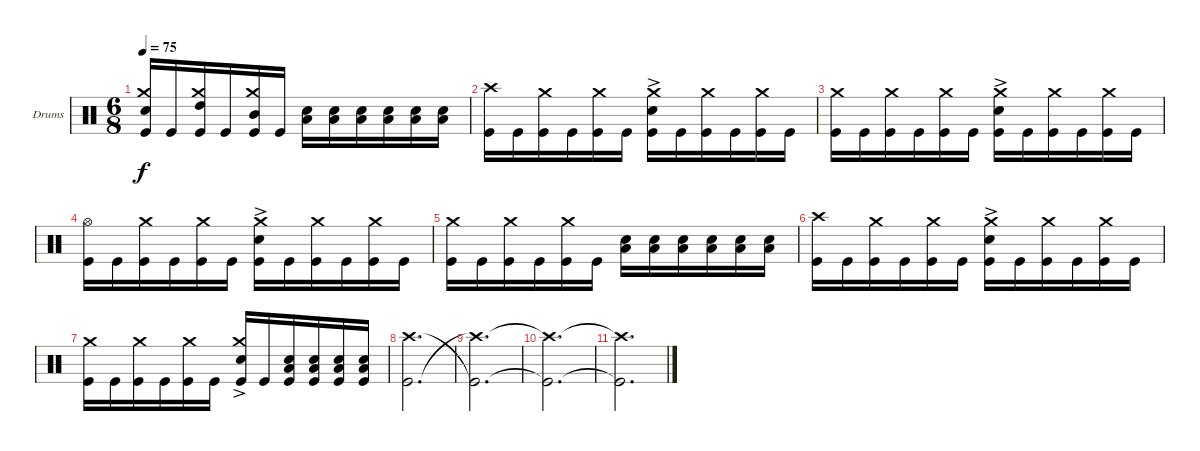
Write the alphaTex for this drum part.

\bracketExtendMode groupsimilarinstruments
\firstSystemTrackNameOrientation horizontal
\otherSystemsTrackNameOrientation horizontal
\track ("Drumkit" "Drums") {instrument percussion}
\staff {score}
\articulation defaults
\ts (6 8)
\tempo 75
\clef neutral
\ks c
("Kick (hit)" "Crash medium (hit)" "Snare (hit) 2").16{dy f} "Kick (hit)".16 ("Kick (hit)" "Crash medium (hit)" "High Tom (hit)").16 "Kick (hit)".16 ("Kick (hit)" "Crash medium (hit)" "Mid Tom (hit)").16 "Kick (hit)".16 ("Snare (hit) 2" "Low Tom (hit)").16 ("Snare (hit) 2" "Low Tom (hit)").16 ("Snare (hit) 2" "Low Tom (hit)").16 ("Snare (hit) 2" "Low Tom (hit)").16 ("Snare (hit) 2" "Low Tom (hit)").16 ("Snare (hit) 2" "Low Tom (hit)").16 |
("Kick (hit)" "Crash high (hit)").16 "Kick (hit)".16 ("Kick (hit)" "Crash medium (hit)").16 "Kick (hit)".16 ("Kick (hit)" "Crash medium (hit)").16 "Kick (hit)".16 ("Kick (hit)" "Crash medium (hit)" "Snare (hit) 2"{ac}).16 "Kick (hit)".16 ("Kick (hit)" "Crash medium (hit)").16 "Kick (hit)".16 ("Kick (hit)" "Crash medium (hit)").16 "Kick (hit)".16 |
("Kick (hit)" "Crash medium (hit)").16 "Kick (hit)".16 ("Kick (hit)" "Crash medium (hit)").16 "Kick (hit)".16 ("Kick (hit)" "Crash medium (hit)").16 "Kick (hit)".16 ("Kick (hit)" "Crash medium (hit)" "Snare (hit) 2"{ac}).16 "Kick (hit)".16 ("Kick (hit)" "Crash medium (hit)").16 "Kick (hit)".16 ("Kick (hit)" "Crash medium (hit)").16 "Kick (hit)".16 |
("Kick (hit)" "Hi-Hat (open)").16 "Kick (hit)".16 ("Kick (hit)" "Crash medium (hit)").16 "Kick (hit)".16 ("Kick (hit)" "Crash medium (hit)").16 "Kick (hit)".16 ("Kick (hit)" "Crash medium (hit)" "Snare (hit) 2"{ac}).16 "Kick (hit)".16 ("Kick (hit)" "Crash medium (hit)").16 "Kick (hit)".16 ("Kick (hit)" "Crash medium (hit)").16 "Kick (hit)".16 |
("Kick (hit)" "Crash medium (hit)").16 "Kick (hit)".16 ("Kick (hit)" "Crash medium (hit)").16 "Kick (hit)".16 ("Kick (hit)" "Crash medium (hit)").16 "Kick (hit)".16 ("Snare (hit) 2" "Low Tom (hit)").16 ("Snare (hit) 2" "Low Tom (hit)").16 ("Snare (hit) 2" "Low Tom (hit)").16 ("Snare (hit) 2" "Low Tom (hit)").16 ("Snare (hit) 2" "Low Tom (hit)").16 ("Snare (hit) 2" "Low Tom (hit)").16 |
("Kick (hit)" "Crash high (hit)").16 "Kick (hit)".16 ("Kick (hit)" "Crash medium (hit)").16 "Kick (hit)".16 ("Kick (hit)" "Crash medium (hit)").16 "Kick (hit)".16 ("Kick (hit)" "Crash medium (hit)" "Snare (hit) 2"{ac}).16 "Kick (hit)".16 ("Kick (hit)" "Crash medium (hit)").16 "Kick (hit)".16 ("Kick (hit)" "Crash medium (hit)").16 "Kick (hit)".16 |
("Kick (hit)" "Crash medium (hit)").16 "Kick (hit)".16 ("Kick (hit)" "Crash medium (hit)").16 "Kick (hit)".16 ("Kick (hit)" "Crash medium (hit)").16 "Kick (hit)".16 ("Kick (hit)" "Crash medium (hit)" "Snare (hit) 2"{ac}).16 "Kick (hit)".16 ("Kick (hit)" "Snare (hit) 2" "Low Tom (hit)").16 ("Kick (hit)" "Snare (hit) 2" "Low Tom (hit)").16 ("Kick (hit)" "Snare (hit) 2" "Low Tom (hit)").16 ("Kick (hit)" "Snare (hit) 2" "Low Tom (hit)").16 |
("Kick (hit)" "Crash high (hit)").2{d} |
("Crash high (hit)"{t} "Kick (hit)"{t}).2{d} |
("Crash high (hit)"{t} "Kick (hit)"{t}).2{d} |
("Crash high (hit)"{t} "Kick (hit)"{t}).2{d}
